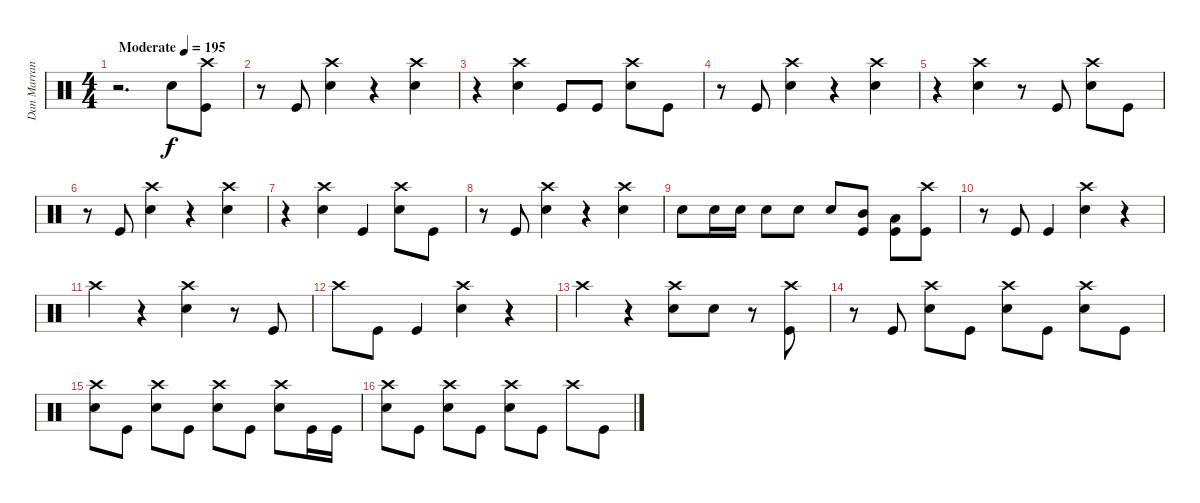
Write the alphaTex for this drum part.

\track ("Dan Marranca" "Dan Marran") {instrument percussion}
\staff {score}
\articulation defaults
\ts (4 4)
\tempo (195 "Moderate")
\clef neutral
\ks c
r.2{d dy f} "Electric Snare (hit)".8 ("Crash high (hit)" "Kick (hit)").8 |
r.8 "Kick (hit)".8 ("Crash high (hit)" "Electric Snare (hit)").4 r.4 ("Crash high (hit)" "Electric Snare (hit)").4 |
r.4 ("Crash high (hit)" "Electric Snare (hit)").4 "Kick (hit)".8 "Kick (hit)".8 ("Crash high (hit)" "Electric Snare (hit)").8 "Kick (hit)".8 |
r.8 "Kick (hit)".8 ("Crash high (hit)" "Electric Snare (hit)").4 r.4 ("Crash high (hit)" "Electric Snare (hit)").4 |
r.4 ("Crash high (hit)" "Electric Snare (hit)").4 r.8 "Kick (hit)".8 ("Crash high (hit)" "Electric Snare (hit)").8 "Kick (hit)".8 |
r.8 "Kick (hit)".8 ("Crash high (hit)" "Electric Snare (hit)").4 r.4 ("Crash high (hit)" "Electric Snare (hit)").4 |
r.4 ("Crash high (hit)" "Electric Snare (hit)").4 "Kick (hit)".4 ("Crash high (hit)" "Electric Snare (hit)").8 "Kick (hit)".8 |
r.8 "Kick (hit)".8 ("Crash high (hit)" "Electric Snare (hit)").4 r.4 ("Crash high (hit)" "Electric Snare (hit)").4 |
"Electric Snare (hit)".8 "Electric Snare (hit)".16 "Electric Snare (hit)".16 "Electric Snare (hit)".8 "Electric Snare (hit)".8 "Electric Snare (hit)".8 ("Mid Tom (hit)" "Kick (hit)").8 ("Low Tom (hit)" "Kick (hit)").8 ("Crash high (hit)" "Kick (hit)").8 |
r.8 "Kick (hit)".8 "Kick (hit)".4 ("Crash high (hit)" "Electric Snare (hit)").4 r.4 |
"Crash high (hit)".4 r.4 ("Crash high (hit)" "Electric Snare (hit)").4 r.8 "Kick (hit)".8 |
"Crash high (hit)".8 "Kick (hit)".8 "Kick (hit)".4 ("Crash high (hit)" "Electric Snare (hit)").4 r.4 |
"Crash high (hit)".4 r.4 ("Crash high (hit)" "Electric Snare (hit)").8 "Electric Snare (hit)".8 r.8 ("Crash high (hit)" "Kick (hit)").8 |
r.8 "Kick (hit)".8 ("Crash high (hit)" "Electric Snare (hit)").8 "Kick (hit)".8 ("Crash high (hit)" "Electric Snare (hit)").8 "Kick (hit)".8 ("Crash high (hit)" "Electric Snare (hit)").8 "Kick (hit)".8 |
("Crash high (hit)" "Electric Snare (hit)").8 "Kick (hit)".8 ("Crash high (hit)" "Electric Snare (hit)").8 "Kick (hit)".8 ("Crash high (hit)" "Electric Snare (hit)").8 "Kick (hit)".8 ("Crash high (hit)" "Electric Snare (hit)").8 "Kick (hit)".16 "Kick (hit)".16 |
("Crash high (hit)" "Electric Snare (hit)").8 "Kick (hit)".8 ("Crash high (hit)" "Electric Snare (hit)").8 "Kick (hit)".8 ("Crash high (hit)" "Electric Snare (hit)").8 "Kick (hit)".8 "Crash high (hit)".8 "Kick (hit)".8
